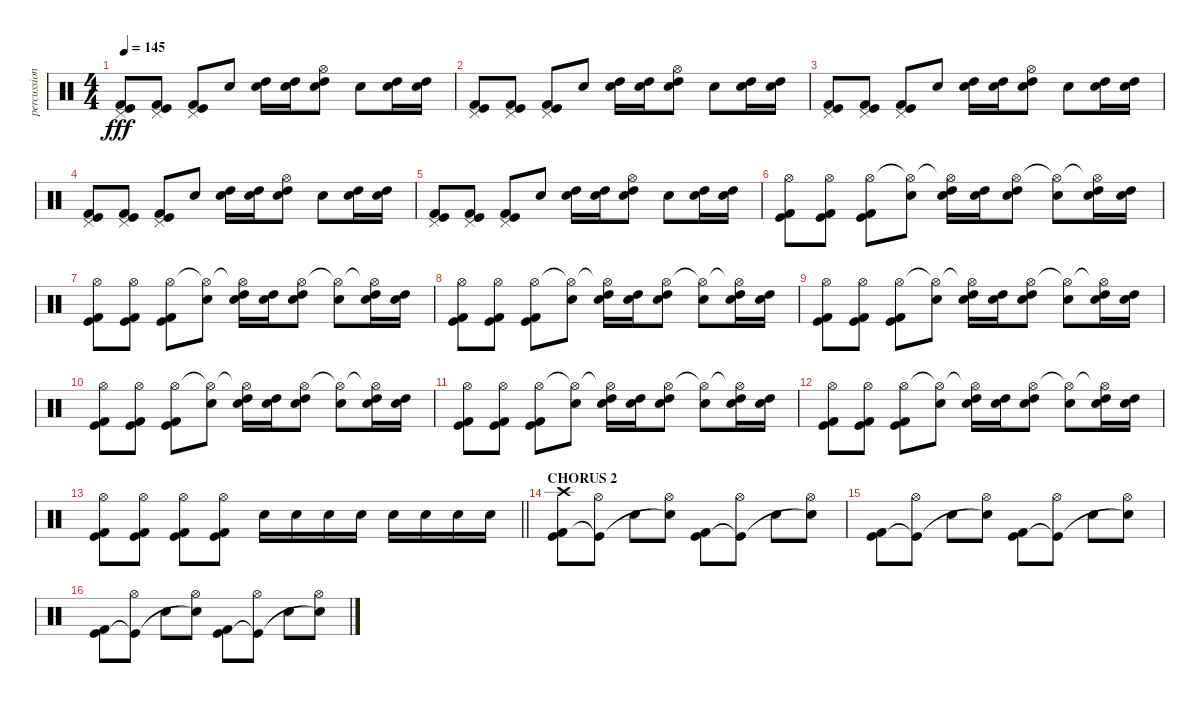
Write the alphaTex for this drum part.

\track ("percussion" "percussion") {instrument percussion}
\staff {score}
\articulation defaults
\ts (4 4)
\tempo 145
\clef neutral
\ks c
("Pedal Hi-Hat (hit)" "Kick (hit) 2" "Kick (hit)").8{dy fff} ("Pedal Hi-Hat (hit)" "Kick (hit) 2" "Kick (hit)").8 ("Pedal Hi-Hat (hit)" "Kick (hit) 2" "Kick (hit)").8 "Electric Snare (hit)".8 ("Electric Snare (hit)" "High Tom (hit)").16 ("Electric Snare (hit)" "High Tom (hit)").16 ("Hi-Hat (open)" "Electric Snare (hit)" "High Tom (hit)").8 "Electric Snare (hit)".8 ("Electric Snare (hit)" "High Tom (hit)").16 ("Electric Snare (hit)" "High Tom (hit)").16 |
("Pedal Hi-Hat (hit)" "Kick (hit) 2" "Kick (hit)").8 ("Pedal Hi-Hat (hit)" "Kick (hit) 2" "Kick (hit)").8 ("Pedal Hi-Hat (hit)" "Kick (hit) 2" "Kick (hit)").8 "Electric Snare (hit)".8 ("Electric Snare (hit)" "High Tom (hit)").16 ("Electric Snare (hit)" "High Tom (hit)").16 ("Hi-Hat (open)" "Electric Snare (hit)" "High Tom (hit)").8 "Electric Snare (hit)".8 ("Electric Snare (hit)" "High Tom (hit)").16 ("Electric Snare (hit)" "High Tom (hit)").16 |
("Pedal Hi-Hat (hit)" "Kick (hit) 2" "Kick (hit)").8 ("Pedal Hi-Hat (hit)" "Kick (hit) 2" "Kick (hit)").8 ("Pedal Hi-Hat (hit)" "Kick (hit) 2" "Kick (hit)").8 "Electric Snare (hit)".8 ("Electric Snare (hit)" "High Tom (hit)").16 ("Electric Snare (hit)" "High Tom (hit)").16 ("Hi-Hat (open)" "Electric Snare (hit)" "High Tom (hit)").8 "Electric Snare (hit)".8 ("Electric Snare (hit)" "High Tom (hit)").16 ("Electric Snare (hit)" "High Tom (hit)").16 |
("Pedal Hi-Hat (hit)" "Kick (hit) 2" "Kick (hit)").8 ("Pedal Hi-Hat (hit)" "Kick (hit) 2" "Kick (hit)").8 ("Pedal Hi-Hat (hit)" "Kick (hit) 2" "Kick (hit)").8 "Electric Snare (hit)".8 ("Electric Snare (hit)" "High Tom (hit)").16 ("Electric Snare (hit)" "High Tom (hit)").16 ("Hi-Hat (open)" "Electric Snare (hit)" "High Tom (hit)").8 "Electric Snare (hit)".8 ("Electric Snare (hit)" "High Tom (hit)").16 ("Electric Snare (hit)" "High Tom (hit)").16 |
("Pedal Hi-Hat (hit)" "Kick (hit) 2" "Kick (hit)").8 ("Pedal Hi-Hat (hit)" "Kick (hit) 2" "Kick (hit)").8 ("Pedal Hi-Hat (hit)" "Kick (hit) 2" "Kick (hit)").8 "Electric Snare (hit)".8 ("Electric Snare (hit)" "High Tom (hit)").16 ("Electric Snare (hit)" "High Tom (hit)").16 ("Hi-Hat (open)" "Electric Snare (hit)" "High Tom (hit)").8 "Electric Snare (hit)".8 ("Electric Snare (hit)" "High Tom (hit)").16 ("Electric Snare (hit)" "High Tom (hit)").16 |
("Hi-Hat (open)" "Kick (hit) 2" "Kick (hit)").8 ("Hi-Hat (open)" "Kick (hit) 2" "Kick (hit)").8 ("Hi-Hat (open)" "Kick (hit) 2" "Kick (hit)").8 ("Hi-Hat (open)"{t} "Electric Snare (hit)").8 ("Hi-Hat (open)"{t} "Electric Snare (hit)" "High Tom (hit)").16 ("Electric Snare (hit)" "High Tom (hit)").16 ("Hi-Hat (open)" "Electric Snare (hit)" "High Tom (hit)").8 ("Hi-Hat (open)"{t} "Electric Snare (hit)").8 ("Hi-Hat (open)"{t} "Electric Snare (hit)" "High Tom (hit)").16 ("Electric Snare (hit)" "High Tom (hit)").16 |
("Hi-Hat (open)" "Kick (hit) 2" "Kick (hit)").8 ("Hi-Hat (open)" "Kick (hit) 2" "Kick (hit)").8 ("Hi-Hat (open)" "Kick (hit) 2" "Kick (hit)").8 ("Hi-Hat (open)"{t} "Electric Snare (hit)").8 ("Hi-Hat (open)"{t} "Electric Snare (hit)" "High Tom (hit)").16 ("Electric Snare (hit)" "High Tom (hit)").16 ("Hi-Hat (open)" "Electric Snare (hit)" "High Tom (hit)").8 ("Hi-Hat (open)"{t} "Electric Snare (hit)").8 ("Hi-Hat (open)"{t} "Electric Snare (hit)" "High Tom (hit)").16 ("Electric Snare (hit)" "High Tom (hit)").16 |
("Hi-Hat (open)" "Kick (hit) 2" "Kick (hit)").8 ("Hi-Hat (open)" "Kick (hit) 2" "Kick (hit)").8 ("Hi-Hat (open)" "Kick (hit) 2" "Kick (hit)").8 ("Hi-Hat (open)"{t} "Electric Snare (hit)").8 ("Hi-Hat (open)"{t} "Electric Snare (hit)" "High Tom (hit)").16 ("Electric Snare (hit)" "High Tom (hit)").16 ("Hi-Hat (open)" "Electric Snare (hit)" "High Tom (hit)").8 ("Hi-Hat (open)"{t} "Electric Snare (hit)").8 ("Hi-Hat (open)"{t} "Electric Snare (hit)" "High Tom (hit)").16 ("Electric Snare (hit)" "High Tom (hit)").16 |
("Hi-Hat (open)" "Kick (hit) 2" "Kick (hit)").8 ("Hi-Hat (open)" "Kick (hit) 2" "Kick (hit)").8 ("Hi-Hat (open)" "Kick (hit) 2" "Kick (hit)").8 ("Hi-Hat (open)"{t} "Electric Snare (hit)").8 ("Hi-Hat (open)"{t} "Electric Snare (hit)" "High Tom (hit)").16 ("Electric Snare (hit)" "High Tom (hit)").16 ("Hi-Hat (open)" "Electric Snare (hit)" "High Tom (hit)").8 ("Hi-Hat (open)"{t} "Electric Snare (hit)").8 ("Hi-Hat (open)"{t} "Electric Snare (hit)" "High Tom (hit)").16 ("Electric Snare (hit)" "High Tom (hit)").16 |
("Hi-Hat (open)" "Kick (hit) 2" "Kick (hit)").8 ("Hi-Hat (open)" "Kick (hit) 2" "Kick (hit)").8 ("Hi-Hat (open)" "Kick (hit) 2" "Kick (hit)").8 ("Hi-Hat (open)"{t} "Electric Snare (hit)").8 ("Hi-Hat (open)"{t} "Electric Snare (hit)" "High Tom (hit)").16 ("Electric Snare (hit)" "High Tom (hit)").16 ("Hi-Hat (open)" "Electric Snare (hit)" "High Tom (hit)").8 ("Hi-Hat (open)"{t} "Electric Snare (hit)").8 ("Hi-Hat (open)"{t} "Electric Snare (hit)" "High Tom (hit)").16 ("Electric Snare (hit)" "High Tom (hit)").16 |
("Hi-Hat (open)" "Kick (hit) 2" "Kick (hit)").8 ("Hi-Hat (open)" "Kick (hit) 2" "Kick (hit)").8 ("Hi-Hat (open)" "Kick (hit) 2" "Kick (hit)").8 ("Hi-Hat (open)"{t} "Electric Snare (hit)").8 ("Hi-Hat (open)"{t} "Electric Snare (hit)" "High Tom (hit)").16 ("Electric Snare (hit)" "High Tom (hit)").16 ("Hi-Hat (open)" "Electric Snare (hit)" "High Tom (hit)").8 ("Hi-Hat (open)"{t} "Electric Snare (hit)").8 ("Hi-Hat (open)"{t} "Electric Snare (hit)" "High Tom (hit)").16 ("Electric Snare (hit)" "High Tom (hit)").16 |
("Hi-Hat (open)" "Kick (hit) 2" "Kick (hit)").8 ("Hi-Hat (open)" "Kick (hit) 2" "Kick (hit)").8 ("Hi-Hat (open)" "Kick (hit) 2" "Kick (hit)").8 ("Hi-Hat (open)"{t} "Electric Snare (hit)").8 ("Hi-Hat (open)"{t} "Electric Snare (hit)" "High Tom (hit)").16 ("Electric Snare (hit)" "High Tom (hit)").16 ("Hi-Hat (open)" "Electric Snare (hit)" "High Tom (hit)").8 ("Hi-Hat (open)"{t} "Electric Snare (hit)").8 ("Hi-Hat (open)"{t} "Electric Snare (hit)" "High Tom (hit)").16 ("Electric Snare (hit)" "High Tom (hit)").16 |
\barLineRight lightlight
("Hi-Hat (open)" "Kick (hit) 2" "Kick (hit)").8 ("Hi-Hat (open)" "Kick (hit) 2" "Kick (hit)").8 ("Hi-Hat (open)" "Kick (hit) 2" "Kick (hit)").8 ("Hi-Hat (open)" "Kick (hit) 2" "Kick (hit)").8 "Electric Snare (hit)".16 "Electric Snare (hit)".16 "Electric Snare (hit)".16 "Electric Snare (hit)".16 "Electric Snare (hit)".16 "Electric Snare (hit)".16 "Electric Snare (hit)".16 "Electric Snare (hit)".16 |
\section ("" "CHORUS 2")
("Crash high (hit)" "Kick (hit) 2" "Kick (hit)").8 ("Hi-Hat (open)" "Kick (hit)"{t}).8 "Electric Snare (hit)".8 ("Hi-Hat (open)" "Electric Snare (hit)"{t}).8 ("Kick (hit) 2" "Kick (hit)").8 ("Hi-Hat (open)" "Kick (hit)"{t}).8 "Electric Snare (hit)".8 ("Hi-Hat (open)" "Electric Snare (hit)"{t}).8 |
("Kick (hit) 2" "Kick (hit)").8 ("Hi-Hat (open)" "Kick (hit)"{t}).8 "Electric Snare (hit)".8 ("Hi-Hat (open)" "Electric Snare (hit)"{t}).8 ("Kick (hit) 2" "Kick (hit)").8 ("Hi-Hat (open)" "Kick (hit)"{t}).8 "Electric Snare (hit)".8 ("Hi-Hat (open)" "Electric Snare (hit)"{t}).8 |
("Kick (hit) 2" "Kick (hit)").8 ("Hi-Hat (open)" "Kick (hit)"{t}).8 "Electric Snare (hit)".8 ("Hi-Hat (open)" "Electric Snare (hit)"{t}).8 ("Kick (hit) 2" "Kick (hit)").8 ("Hi-Hat (open)" "Kick (hit)"{t}).8 "Electric Snare (hit)".8 ("Hi-Hat (open)" "Electric Snare (hit)"{t}).8
